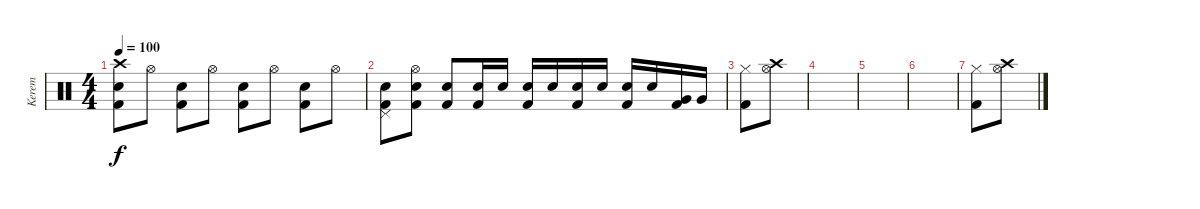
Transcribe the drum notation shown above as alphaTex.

\track ("Kerem" "Kerem") {instrument percussion}
\staff {score}
\articulation defaults
\ts (4 4)
\tempo 100
\clef neutral
\ks c
("Crash high (hit)" "Electric Snare (hit)" "Kick (hit) 2").8{dy f} "Hi-Hat (open)".8 ("Electric Snare (hit)" "Kick (hit) 2").8 "Hi-Hat (open)".8 ("Electric Snare (hit)" "Kick (hit) 2").8 "Hi-Hat (open)".8 ("Electric Snare (hit)" "Kick (hit) 2").8 "Hi-Hat (open)".8 |
("Pedal Hi-Hat (hit)" "Electric Snare (hit)" "Kick (hit) 2").8 ("Electric Snare (hit)" "Hi-Hat (open)" "Kick (hit) 2").8 ("Electric Snare (hit)" "Kick (hit) 2").8 ("Electric Snare (hit)" "Kick (hit) 2").16 "Electric Snare (hit)".16 ("Electric Snare (hit)" "Kick (hit) 2").16 "Electric Snare (hit)".16 ("Electric Snare (hit)" "Kick (hit) 2").16 "Electric Snare (hit)".16 ("Electric Snare (hit)" "Kick (hit) 2").16 "Electric Snare (hit)".16 ("Very Low Tom (hit)" "Kick (hit) 2").16 "Very Low Tom (hit)".16 |
("Hi-Hat (closed)" "Kick (hit) 2").8 ("Hi-Hat (open)" "Crash high (hit)").8 |
|
|
|
("Hi-Hat (closed)" "Kick (hit) 2").8 ("Hi-Hat (open)" "Crash high (hit)").8
